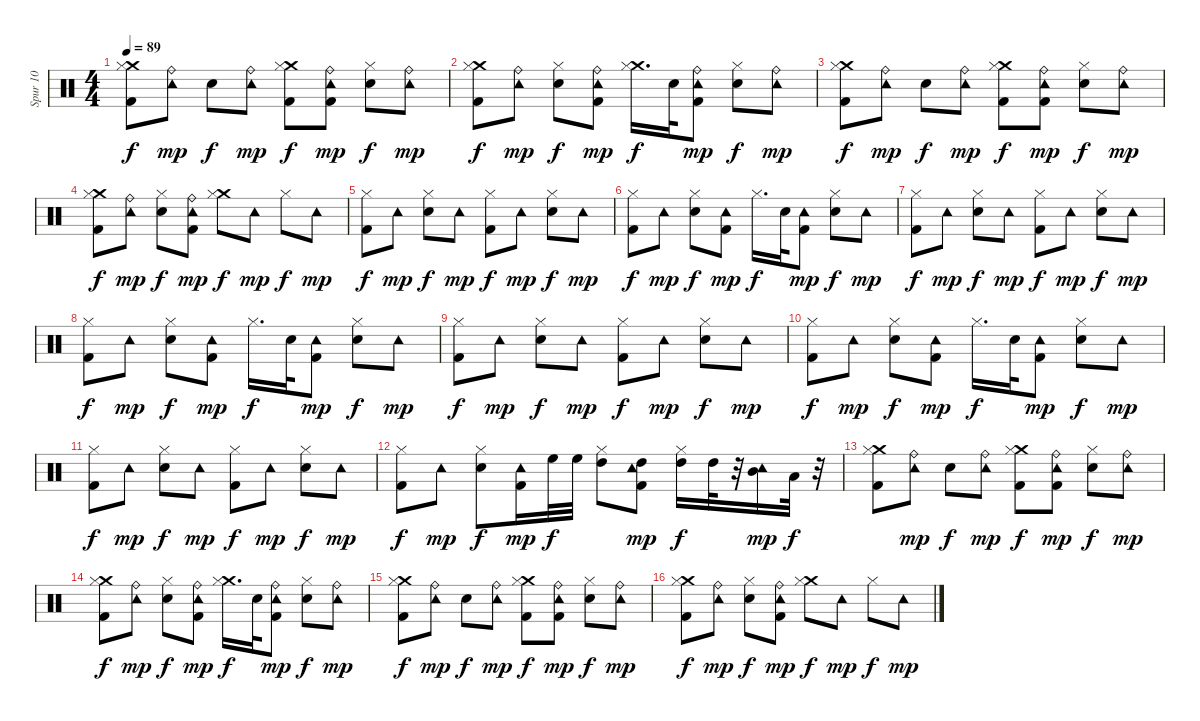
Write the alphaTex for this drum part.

\track ("Spur 10" "Spur 10") {instrument percussion}
\staff {score}
\articulation defaults
\ts (4 4)
\tempo 89
\clef neutral
\ks c
("Crash medium (hit)" "Kick (hit) 2" "Hi-Hat (closed)").8{dy f} ("Ride (bell)" "Tambourine (hit)").8{dy mp} "Electric Snare (hit)".8{dy f} ("Ride (bell)" "Tambourine (hit)").8{dy mp} ("Crash medium (hit)" "Kick (hit) 2" "Hi-Hat (closed)").8{dy f} ("Kick (hit) 2" "Ride (bell)" "Tambourine (hit)").8{dy mp} ("Electric Snare (hit)" "Hi-Hat (closed)").8{dy f} ("Ride (bell)" "Tambourine (hit)").8{dy mp} |
("Crash medium (hit)" "Kick (hit) 2" "Hi-Hat (closed)").8{dy f} ("Ride (bell)" "Tambourine (hit)").8{dy mp} ("Electric Snare (hit)" "Hi-Hat (closed)").8{dy f} ("Ride (bell)" "Kick (hit) 2" "Tambourine (hit)").8{dy mp} ("Crash medium (hit)" "Hi-Hat (closed)").16{d dy f} "Electric Snare (hit)".32 ("Ride (bell)" "Kick (hit) 2" "Tambourine (hit)").8{dy mp} ("Electric Snare (hit)" "Hi-Hat (closed)").8{dy f} ("Ride (bell)" "Tambourine (hit)").8{dy mp} |
("Crash medium (hit)" "Kick (hit) 2" "Hi-Hat (closed)").8{dy f} ("Ride (bell)" "Tambourine (hit)").8{dy mp} "Electric Snare (hit)".8{dy f} ("Ride (bell)" "Tambourine (hit)").8{dy mp} ("Crash medium (hit)" "Kick (hit) 2" "Hi-Hat (closed)").8{dy f} ("Kick (hit) 2" "Ride (bell)" "Tambourine (hit)").8{dy mp} ("Electric Snare (hit)" "Hi-Hat (closed)").8{dy f} ("Ride (bell)" "Tambourine (hit)").8{dy mp} |
("Crash medium (hit)" "Kick (hit) 2" "Hi-Hat (closed)").8{dy f} ("Ride (bell)" "Tambourine (hit)").8{dy mp} ("Electric Snare (hit)" "Hi-Hat (closed)").8{dy f} ("Ride (bell)" "Kick (hit) 2" "Tambourine (hit)").8{dy mp} ("Crash medium (hit)" "Hi-Hat (closed)").8{dy f} "Tambourine (hit)".8{dy mp} "Hi-Hat (closed)".8{dy f} "Tambourine (hit)".8{dy mp} |
("Kick (hit) 2" "Hi-Hat (closed)").8{dy f} "Tambourine (hit)".8{dy mp} ("Electric Snare (hit)" "Hi-Hat (closed)").8{dy f} "Tambourine (hit)".8{dy mp} ("Kick (hit) 2" "Hi-Hat (closed)").8{dy f} "Tambourine (hit)".8{dy mp} ("Electric Snare (hit)" "Hi-Hat (closed)").8{dy f} "Tambourine (hit)".8{dy mp} |
("Kick (hit) 2" "Hi-Hat (closed)").8{dy f} "Tambourine (hit)".8{dy mp} ("Electric Snare (hit)" "Hi-Hat (closed)").8{dy f} ("Kick (hit) 2" "Tambourine (hit)").8{dy mp} "Hi-Hat (closed)".16{d dy f} "Electric Snare (hit)".32 ("Kick (hit) 2" "Tambourine (hit)").8{dy mp} ("Electric Snare (hit)" "Hi-Hat (closed)").8{dy f} "Tambourine (hit)".8{dy mp} |
("Kick (hit) 2" "Hi-Hat (closed)").8{dy f} "Tambourine (hit)".8{dy mp} ("Electric Snare (hit)" "Hi-Hat (closed)").8{dy f} "Tambourine (hit)".8{dy mp} ("Kick (hit) 2" "Hi-Hat (closed)").8{dy f} "Tambourine (hit)".8{dy mp} ("Electric Snare (hit)" "Hi-Hat (closed)").8{dy f} "Tambourine (hit)".8{dy mp} |
("Kick (hit) 2" "Hi-Hat (closed)").8{dy f} "Tambourine (hit)".8{dy mp} ("Electric Snare (hit)" "Hi-Hat (closed)").8{dy f} ("Kick (hit) 2" "Tambourine (hit)").8{dy mp} "Hi-Hat (closed)".16{d dy f} "Electric Snare (hit)".32 ("Kick (hit) 2" "Tambourine (hit)").8{dy mp} ("Electric Snare (hit)" "Hi-Hat (closed)").8{dy f} "Tambourine (hit)".8{dy mp} |
("Kick (hit) 2" "Hi-Hat (closed)").8{dy f} "Tambourine (hit)".8{dy mp} ("Electric Snare (hit)" "Hi-Hat (closed)").8{dy f} "Tambourine (hit)".8{dy mp} ("Kick (hit) 2" "Hi-Hat (closed)").8{dy f} "Tambourine (hit)".8{dy mp} ("Electric Snare (hit)" "Hi-Hat (closed)").8{dy f} "Tambourine (hit)".8{dy mp} |
("Kick (hit) 2" "Hi-Hat (closed)").8{dy f} "Tambourine (hit)".8{dy mp} ("Electric Snare (hit)" "Hi-Hat (closed)").8{dy f} ("Kick (hit) 2" "Tambourine (hit)").8{dy mp} "Hi-Hat (closed)".16{d dy f} "Electric Snare (hit)".32 ("Kick (hit) 2" "Tambourine (hit)").8{dy mp} ("Electric Snare (hit)" "Hi-Hat (closed)").8{dy f} "Tambourine (hit)".8{dy mp} |
("Kick (hit) 2" "Hi-Hat (closed)").8{dy f} "Tambourine (hit)".8{dy mp} ("Electric Snare (hit)" "Hi-Hat (closed)").8{dy f} "Tambourine (hit)".8{dy mp} ("Kick (hit) 2" "Hi-Hat (closed)").8{dy f} "Tambourine (hit)".8{dy mp} ("Electric Snare (hit)" "Hi-Hat (closed)").8{dy f} "Tambourine (hit)".8{dy mp} |
("Kick (hit) 2" "Hi-Hat (closed)").8{dy f} "Tambourine (hit)".8{dy mp} ("Electric Snare (hit)" "Hi-Hat (closed)").8{dy f} ("Kick (hit) 2" "Tambourine (hit)").16{dy mp} "High Floor Tom (hit)".32{dy f} "High Floor Tom (hit)".32 ("High Tom (hit)" "Hi-Hat (closed)").8 ("High Tom (hit)" "Tambourine (hit)" "Kick (hit) 2").8{dy mp} ("High Tom (hit)" "Hi-Hat (closed)").16{dy f} "High Tom (hit)".32 r.32 ("Mid Tom (hit)" "Tambourine (hit)").16{dy mp} "Low Tom (hit)".32{dy f} r.32 |
("Crash medium (hit)" "Kick (hit) 2" "Hi-Hat (closed)").8 ("Ride (bell)" "Tambourine (hit)").8{dy mp} "Electric Snare (hit)".8{dy f} ("Ride (bell)" "Tambourine (hit)").8{dy mp} ("Crash medium (hit)" "Kick (hit) 2" "Hi-Hat (closed)").8{dy f} ("Kick (hit) 2" "Ride (bell)" "Tambourine (hit)").8{dy mp} ("Electric Snare (hit)" "Hi-Hat (closed)").8{dy f} ("Ride (bell)" "Tambourine (hit)").8{dy mp} |
("Crash medium (hit)" "Kick (hit) 2" "Hi-Hat (closed)").8{dy f} ("Ride (bell)" "Tambourine (hit)").8{dy mp} ("Electric Snare (hit)" "Hi-Hat (closed)").8{dy f} ("Ride (bell)" "Kick (hit) 2" "Tambourine (hit)").8{dy mp} ("Crash medium (hit)" "Hi-Hat (closed)").16{d dy f} "Electric Snare (hit)".32 ("Ride (bell)" "Kick (hit) 2" "Tambourine (hit)").8{dy mp} ("Electric Snare (hit)" "Hi-Hat (closed)").8{dy f} ("Ride (bell)" "Tambourine (hit)").8{dy mp} |
("Crash medium (hit)" "Kick (hit) 2" "Hi-Hat (closed)").8{dy f} ("Ride (bell)" "Tambourine (hit)").8{dy mp} "Electric Snare (hit)".8{dy f} ("Ride (bell)" "Tambourine (hit)").8{dy mp} ("Crash medium (hit)" "Kick (hit) 2" "Hi-Hat (closed)").8{dy f} ("Kick (hit) 2" "Ride (bell)" "Tambourine (hit)").8{dy mp} ("Electric Snare (hit)" "Hi-Hat (closed)").8{dy f} ("Ride (bell)" "Tambourine (hit)").8{dy mp} |
("Crash medium (hit)" "Kick (hit) 2" "Hi-Hat (closed)").8{dy f} ("Ride (bell)" "Tambourine (hit)").8{dy mp} ("Electric Snare (hit)" "Hi-Hat (closed)").8{dy f} ("Ride (bell)" "Kick (hit) 2" "Tambourine (hit)").8{dy mp} ("Crash medium (hit)" "Hi-Hat (closed)").8{dy f} "Tambourine (hit)".8{dy mp} "Hi-Hat (closed)".8{dy f} "Tambourine (hit)".8{dy mp}
